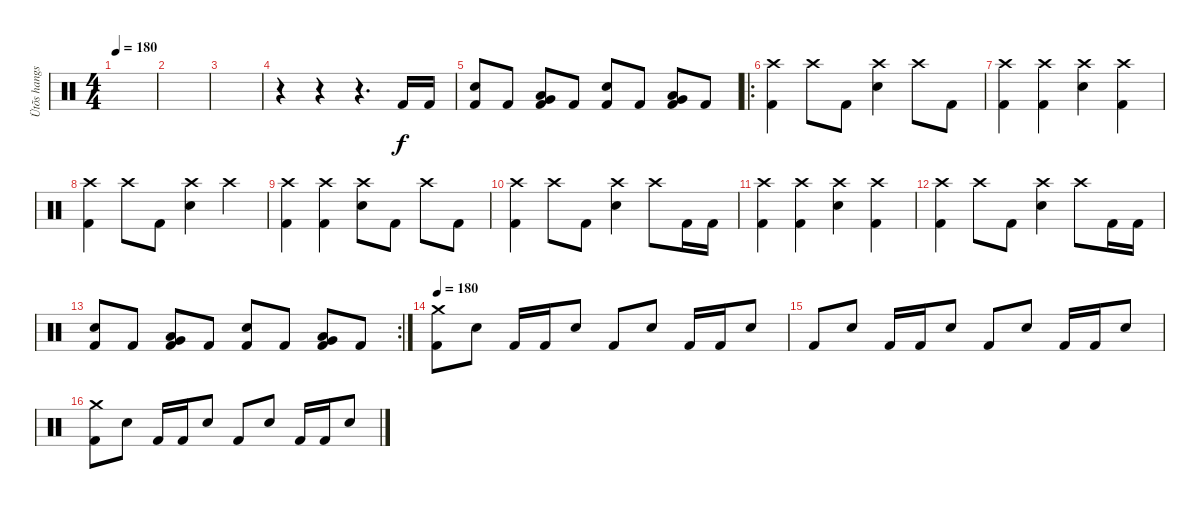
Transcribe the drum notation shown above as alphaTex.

\track ("Ütõs hangszer" "Ütõs hangs") {instrument percussion}
\staff {score}
\articulation defaults
\ts (4 4)
\tempo 180
\tempo 120
\tempo 180
\clef neutral
\ks c
|
|
|
r.4 r.4 r.4{d} "Kick (hit) 2".16 "Kick (hit) 2".16 |
("Snare (hit) 2" "Kick (hit) 2").8 "Kick (hit) 2".8 ("Low Tom (hit)" "Very Low Tom (hit)" "Kick (hit) 2").8 "Kick (hit) 2".8 ("Snare (hit) 2" "Kick (hit) 2").8 "Kick (hit) 2".8 ("Low Tom (hit)" "Very Low Tom (hit)" "Kick (hit) 2").8 "Kick (hit) 2".8 |
\ro
("Crash high (hit)" "Kick (hit) 2").4 "Crash high (hit)".8 "Kick (hit) 2".8 ("Crash high (hit)" "Snare (hit) 2").4 "Crash high (hit)".8 "Kick (hit) 2".8 |
("Crash high (hit)" "Kick (hit) 2").4 ("Crash high (hit)" "Kick (hit) 2").4 ("Crash high (hit)" "Snare (hit) 2").4 ("Crash high (hit)" "Kick (hit) 2").4 |
("Crash high (hit)" "Kick (hit) 2").4 "Crash high (hit)".8 "Kick (hit) 2".8 ("Crash high (hit)" "Snare (hit) 2").4 "Crash high (hit)".4 |
("Crash high (hit)" "Kick (hit) 2").4 ("Crash high (hit)" "Kick (hit) 2").4 ("Crash high (hit)" "Snare (hit) 2").8 "Kick (hit) 2".8 "Crash high (hit)".8 "Kick (hit) 2".8 |
("Crash high (hit)" "Kick (hit) 2").4 "Crash high (hit)".8 "Kick (hit) 2".8 ("Crash high (hit)" "Snare (hit) 2").4 "Crash high (hit)".8 "Kick (hit) 2".16 "Kick (hit) 2".16 |
("Crash high (hit)" "Kick (hit) 2").4 ("Crash high (hit)" "Kick (hit) 2").4 ("Crash high (hit)" "Snare (hit) 2").4 ("Crash high (hit)" "Kick (hit) 2").4 |
("Crash high (hit)" "Kick (hit) 2").4 "Crash high (hit)".8 "Kick (hit) 2".8 ("Crash high (hit)" "Snare (hit) 2").4 "Crash high (hit)".8 "Kick (hit) 2".16 "Kick (hit) 2".16 |
\rc 2
("Snare (hit) 2" "Kick (hit) 2").8 "Kick (hit) 2".8 ("Low Tom (hit)" "Very Low Tom (hit)" "Kick (hit) 2").8 "Kick (hit) 2".8 ("Snare (hit) 2" "Kick (hit) 2").8 "Kick (hit) 2".8 ("Low Tom (hit)" "Very Low Tom (hit)" "Kick (hit) 2").8 "Kick (hit) 2".8 |
\tempo 180
("Crash medium (hit)" "Kick (hit) 2").8 "Snare (hit) 2".8 "Kick (hit) 2".16 "Kick (hit) 2".16 "Snare (hit) 2".8 "Kick (hit) 2".8 "Snare (hit) 2".8 "Kick (hit) 2".16 "Kick (hit) 2".16 "Snare (hit) 2".8 |
"Kick (hit) 2".8 "Snare (hit) 2".8 "Kick (hit) 2".16 "Kick (hit) 2".16 "Snare (hit) 2".8 "Kick (hit) 2".8 "Snare (hit) 2".8 "Kick (hit) 2".16 "Kick (hit) 2".16 "Snare (hit) 2".8 |
("Crash medium (hit)" "Kick (hit) 2").8 "Snare (hit) 2".8 "Kick (hit) 2".16 "Kick (hit) 2".16 "Snare (hit) 2".8 "Kick (hit) 2".8 "Snare (hit) 2".8 "Kick (hit) 2".16 "Kick (hit) 2".16 "Snare (hit) 2".8
